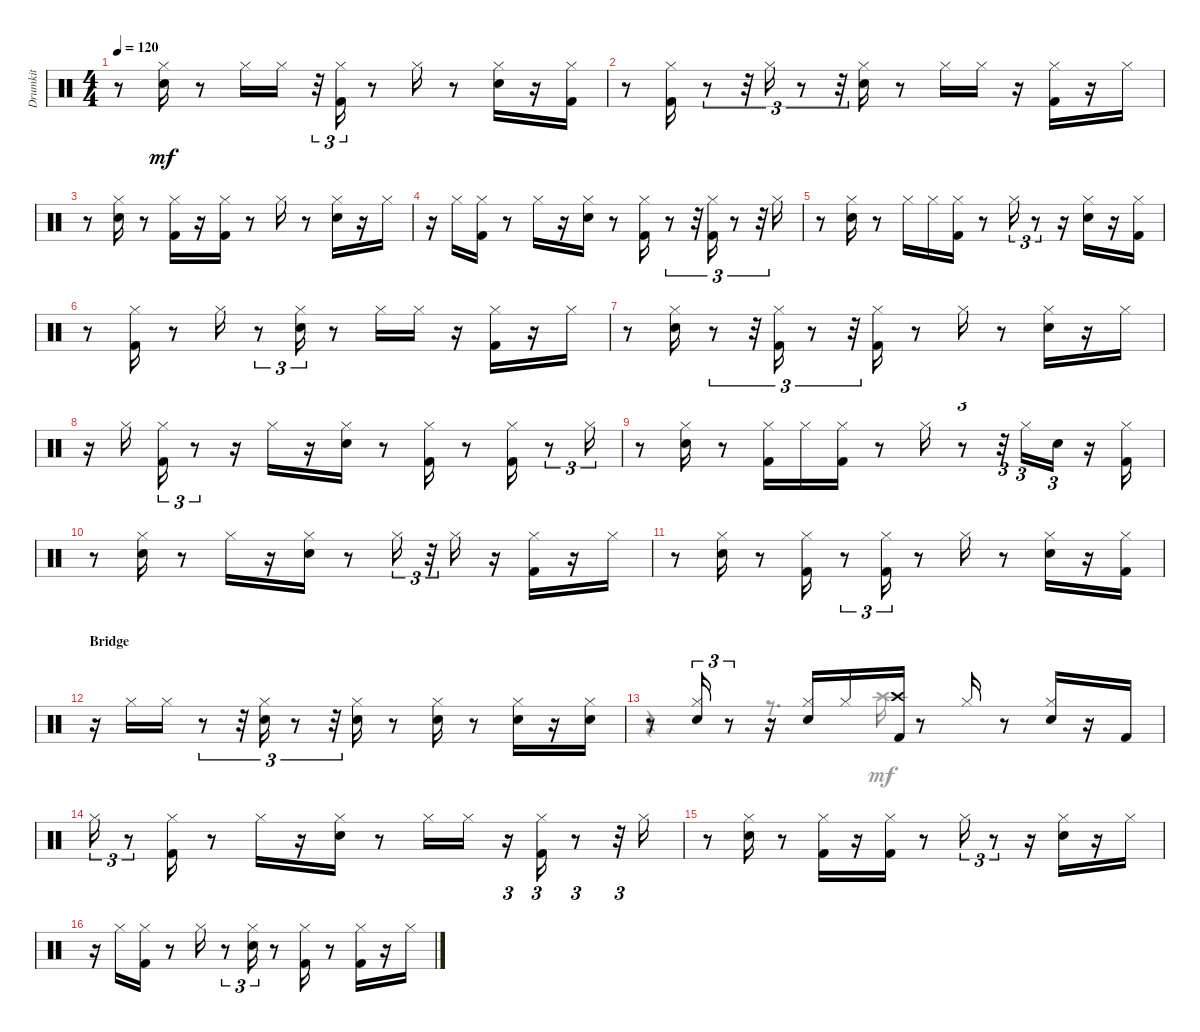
\track ("Drumkit" "Drumkit") {instrument percussion}
\staff {score}
\articulation defaults
\voice
\ts (4 4)
\tempo 120
\clef neutral
\ks aminor
r.8{dy mf} ("Snare (hit) 2" "Hi-Hat (closed)").16 r.8 "Hi-Hat (closed)".16 "Hi-Hat (closed)".16 r.32{tu (3 2)} ("Kick (hit) 2" "Hi-Hat (closed)").16{tu (3 2)} r.8 "Hi-Hat (closed)".16 r.8 ("Snare (hit) 2" "Hi-Hat (closed)").16 r.16 ("Kick (hit) 2" "Hi-Hat (closed)").16 |
r.8 ("Kick (hit) 2" "Hi-Hat (closed)").16 r.8{tu (3 2)} r.32{tu (3 2)} "Hi-Hat (closed)".16{tu (3 2)} r.8{tu (3 2)} r.32{tu (3 2)} ("Snare (hit) 2" "Hi-Hat (closed)").16 r.8 "Hi-Hat (closed)".16 "Hi-Hat (closed)".16 r.16 ("Kick (hit) 2" "Hi-Hat (closed)").16 r.16 "Hi-Hat (closed)".16 |
r.8 ("Snare (hit) 2" "Hi-Hat (closed)").16 r.8 ("Kick (hit) 2" "Hi-Hat (closed)").16 r.16 ("Kick (hit) 2" "Hi-Hat (closed)").16 r.8 "Hi-Hat (closed)".16 r.8 ("Snare (hit) 2" "Hi-Hat (closed)").16 r.16 "Hi-Hat (closed)".16 |
r.16 "Hi-Hat (closed)".16 ("Kick (hit) 2" "Hi-Hat (closed)").16 r.8 "Hi-Hat (closed)".16 r.16 ("Snare (hit) 2" "Hi-Hat (closed)").16 r.8 ("Kick (hit) 2" "Hi-Hat (closed)").16 r.8{tu (3 2)} r.32{tu (3 2)} ("Kick (hit) 2" "Hi-Hat (closed)").16{tu (3 2)} r.8{tu (3 2)} r.32{tu (3 2)} "Hi-Hat (closed)".16 |
r.8 ("Snare (hit) 2" "Hi-Hat (closed)").16 r.8 "Hi-Hat (closed)".16 "Hi-Hat (closed)".16 ("Kick (hit) 2" "Hi-Hat (closed)").16 r.8 "Hi-Hat (closed)".16{tu (3 2)} r.8{tu (3 2)} r.16 ("Snare (hit) 2" "Hi-Hat (closed)").16 r.16 ("Kick (hit) 2" "Hi-Hat (closed)").16 |
r.8 ("Kick (hit) 2" "Hi-Hat (closed)").16 r.8 "Hi-Hat (closed)".16 r.8{tu (3 2)} ("Snare (hit) 2" "Hi-Hat (closed)").16{tu (3 2)} r.8 "Hi-Hat (closed)".16 "Hi-Hat (closed)".16 r.16 ("Kick (hit) 2" "Hi-Hat (closed)").16 r.16 "Hi-Hat (closed)".16 |
r.8 ("Snare (hit) 2" "Hi-Hat (closed)").16 r.8{tu (3 2)} r.32{tu (3 2)} ("Kick (hit) 2" "Hi-Hat (closed)").16{tu (3 2)} r.8{tu (3 2)} r.32{tu (3 2)} ("Kick (hit) 2" "Hi-Hat (closed)").16 r.8 "Hi-Hat (closed)".16 r.8 ("Snare (hit) 2" "Hi-Hat (closed)").16 r.16 "Hi-Hat (closed)".16 |
r.16 "Hi-Hat (closed)".16 ("Kick (hit) 2" "Hi-Hat (closed)").16{tu (3 2)} r.8{tu (3 2)} r.16 "Hi-Hat (closed)".16 r.16 ("Snare (hit) 2" "Hi-Hat (closed)").16 r.8 ("Kick (hit) 2" "Hi-Hat (closed)").16 r.8 ("Kick (hit) 2" "Hi-Hat (closed)").16 r.8{tu (3 2)} "Hi-Hat (closed)".16{tu (3 2)} |
r.8 ("Snare (hit) 2" "Hi-Hat (closed)").16 r.8 ("Kick (hit) 2" "Hi-Hat (closed)").16 "Hi-Hat (closed)".16 ("Kick (hit) 2" "Hi-Hat (closed)").16 r.8 "Hi-Hat (closed)".16 r.8{tu (3 2)} r.32{tu (3 2)} "Hi-Hat (closed)".16{tu (3 2)} "Snare (hit) 2".16{tu (3 2)} r.16 ("Kick (hit) 2" "Hi-Hat (closed)").16 |
r.8 ("Snare (hit) 2" "Hi-Hat (closed)").16 r.8 "Hi-Hat (closed)".16 r.16 ("Snare (hit) 2" "Hi-Hat (closed)").16 r.8 "Hi-Hat (closed)".16{tu (3 2)} r.32{tu (3 2)} "Hi-Hat (closed)".16 r.16 ("Kick (hit) 2" "Hi-Hat (closed)").16 r.16 "Hi-Hat (closed)".16 |
r.8 ("Snare (hit) 2" "Hi-Hat (closed)").16 r.8 ("Kick (hit) 2" "Hi-Hat (closed)").16 r.8{tu (3 2)} ("Kick (hit) 2" "Hi-Hat (closed)").16{tu (3 2)} r.8 "Hi-Hat (closed)".16 r.8 ("Snare (hit) 2" "Hi-Hat (closed)").16 r.16 ("Kick (hit) 2" "Hi-Hat (closed)").16 |
\section ("" "Bridge")
r.16 "Hi-Hat (closed)".16 "Hi-Hat (closed)".16 r.8{tu (3 2)} r.32{tu (3 2)} ("Snare (hit) 2" "Hi-Hat (closed)").16{tu (3 2)} r.8{tu (3 2)} r.32{tu (3 2)} ("Snare (hit) 2" "Hi-Hat (closed)").16 r.8 ("Snare (hit) 2" "Hi-Hat (closed)").16 r.8 ("Snare (hit) 2" "Hi-Hat (closed)").16 r.16 ("Snare (hit) 2" "Hi-Hat (closed)").16 |
r.8 ("Snare (hit) 2" "Hi-Hat (closed)").16{tu (3 2)} r.8{tu (3 2)} r.16 ("Snare (hit) 2" "Hi-Hat (closed)").16 "Hi-Hat (closed)".16 ("Kick (hit) 2" "Crash high (hit)").16 r.8 "Hi-Hat (closed)".16 r.8 ("Snare (hit) 2" "Hi-Hat (closed)").16 r.16 "Kick (hit) 2".16 |
"Hi-Hat (closed)".16{tu (3 2)} r.8{tu (3 2)} ("Kick (hit) 2" "Hi-Hat (closed)").16 r.8 "Hi-Hat (closed)".16 r.16 ("Snare (hit) 2" "Hi-Hat (closed)").16 r.8 "Hi-Hat (closed)".16 "Hi-Hat (closed)".16 r.16{tu (3 2)} ("Kick (hit) 2" "Hi-Hat (closed)").16{tu (3 2)} r.8{tu (3 2)} r.32{tu (3 2)} "Hi-Hat (closed)".16 |
r.8 ("Snare (hit) 2" "Hi-Hat (closed)").16 r.8 ("Kick (hit) 2" "Hi-Hat (closed)").16 r.16 ("Kick (hit) 2" "Hi-Hat (closed)").16 r.8 "Hi-Hat (closed)".16{tu (3 2)} r.8{tu (3 2)} r.16 ("Snare (hit) 2" "Hi-Hat (closed)").16 r.16 "Hi-Hat (closed)".16 |
r.16 "Hi-Hat (closed)".16 ("Kick (hit) 2" "Hi-Hat (closed)").16 r.8 "Hi-Hat (closed)".16 r.8{tu (3 2)} ("Snare (hit) 2" "Hi-Hat (closed)").16{tu (3 2)} r.8 ("Kick (hit) 2" "Hi-Hat (closed)").16 r.8 ("Kick (hit) 2" "Hi-Hat (closed)").16 r.16 "Hi-Hat (closed)".16
\voice
\clef neutral
\ottava regular
\simile none
\ks aminor
|
|
|
|
|
|
|
|
|
|
|
|
r.4 r.8{d} "Crash high (hit)".16 |
|
|
